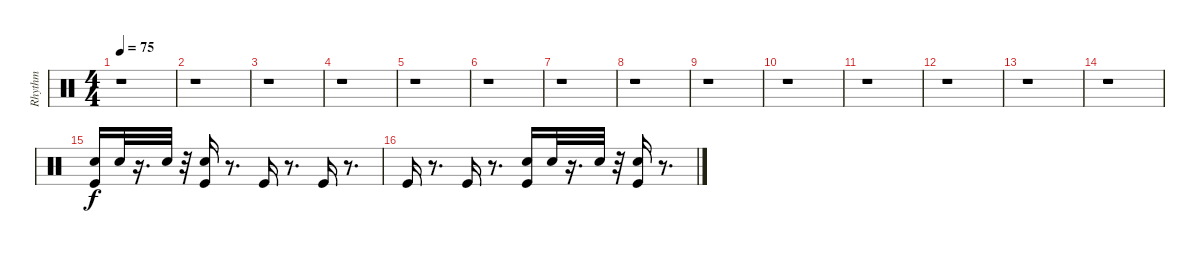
\track ("Rhythm         " "Rhythm    ") {instrument percussion}
\staff {score}
\articulation defaults
\ts (4 4)
\tempo 75
\clef neutral
\ks c
r.1{dy f} |
r.1 |
r.1 |
r.1 |
r.1 |
r.1 |
r.1 |
r.1 |
r.1 |
r.1 |
r.1 |
r.1 |
r.1 |
r.1 |
("Snare (hit) 2" "Kick (hit)").16 "Snare (hit) 2".32 r.16{d} "Snare (hit) 2".32 r.32 ("Snare (hit) 2" "Kick (hit)").16 r.8{d} "Kick (hit)".16 r.8{d} "Kick (hit)".16 r.8{d} |
"Kick (hit)".16 r.8{d} "Kick (hit)".16 r.8{d} ("Snare (hit) 2" "Kick (hit)").16 "Snare (hit) 2".32 r.16{d} "Snare (hit) 2".32 r.32 ("Snare (hit) 2" "Kick (hit)").16 r.8{d}
